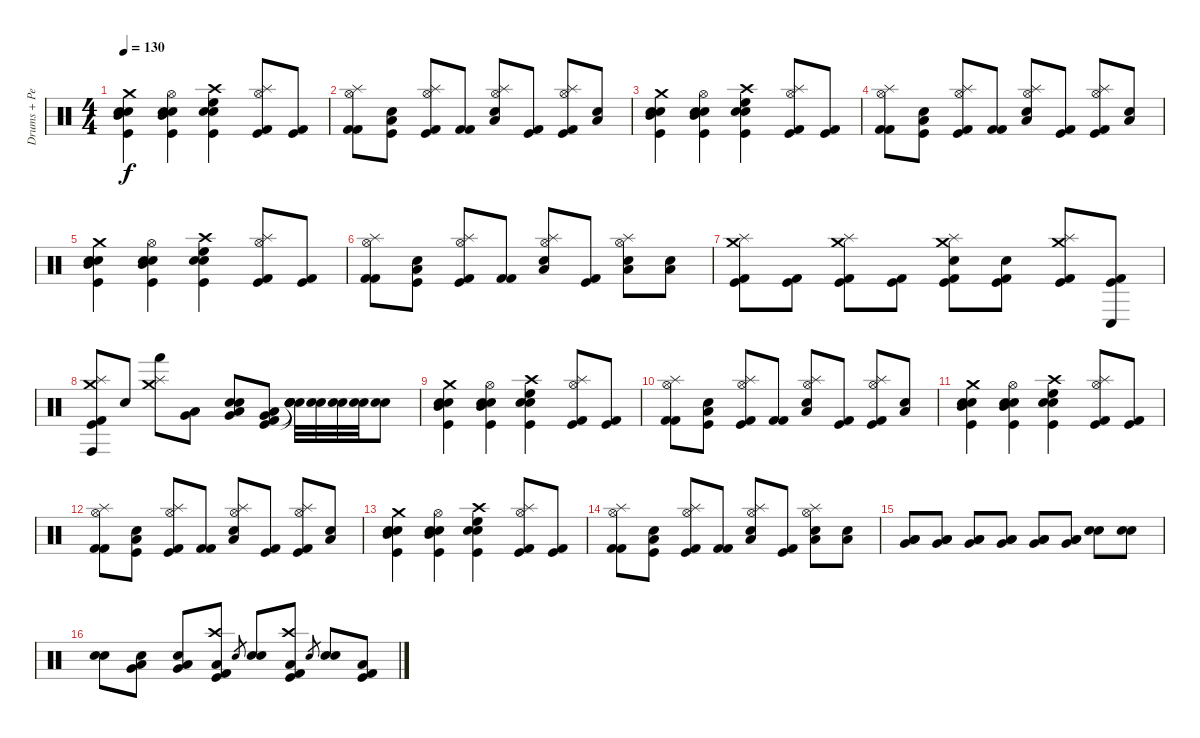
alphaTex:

\track ("Drums + Percussions (Dave Chavarri)" "Drums + Pe") {instrument percussion}
\staff {score}
\articulation defaults
\ts (4 4)
\tempo 130
\clef neutral
\ks c
("Crash medium (hit)" "Snare (hit) 2" "Electric Snare (hit)" "Mid Tom (hit)" "Kick (hit)").4{dy f} ("Hi-Hat (open)" "Snare (hit) 2" "Electric Snare (hit)" "Mid Tom (hit)" "Kick (hit)").4 ("Crash high (hit)" "Snare (hit) 2" "Electric Snare (hit)" "High Floor Tom (hit)" "Kick (hit)").4 ("Hi-Hat (open)" "Splash (hit)" "Kick (hit) 2" "Kick (hit)").8 ("Kick (hit) 2" "Kick (hit)").8 |
("Hi-Hat (open)" "Splash (hit)" "Kick (hit) 2" "Kick (hit) 2").8 ("Electric Snare (hit)" "Low Floor Tom (hit)" "Kick (hit)").8 ("Hi-Hat (open)" "Splash (hit)" "Kick (hit) 2" "Kick (hit)").8 ("Kick (hit) 2" "Kick (hit) 2").8 ("Hi-Hat (open)" "Splash (hit)" "Electric Snare (hit)" "Low Floor Tom (hit)").8 ("Kick (hit)" "Kick (hit) 2").8 ("Hi-Hat (open)" "Splash (hit)" "Kick (hit)" "Kick (hit) 2").8 ("Electric Snare (hit)" "Low Floor Tom (hit)").8 |
("Crash medium (hit)" "Snare (hit) 2" "Electric Snare (hit)" "Mid Tom (hit)" "Kick (hit)").4 ("Hi-Hat (open)" "Snare (hit) 2" "Electric Snare (hit)" "Mid Tom (hit)" "Kick (hit)").4 ("Crash high (hit)" "Snare (hit) 2" "Electric Snare (hit)" "High Floor Tom (hit)" "Kick (hit)").4 ("Hi-Hat (open)" "Splash (hit)" "Kick (hit) 2" "Kick (hit)").8 ("Kick (hit) 2" "Kick (hit)").8 |
("Hi-Hat (open)" "Splash (hit)" "Kick (hit) 2" "Kick (hit) 2").8 ("Electric Snare (hit)" "Low Floor Tom (hit)" "Kick (hit)").8 ("Hi-Hat (open)" "Splash (hit)" "Kick (hit) 2" "Kick (hit)").8 ("Kick (hit) 2" "Kick (hit) 2").8 ("Hi-Hat (open)" "Splash (hit)" "Electric Snare (hit)" "Low Floor Tom (hit)").8 ("Kick (hit)" "Kick (hit) 2").8 ("Hi-Hat (open)" "Splash (hit)" "Kick (hit)" "Kick (hit) 2").8 ("Electric Snare (hit)" "Low Floor Tom (hit)").8 |
("Crash medium (hit)" "Snare (hit) 2" "Electric Snare (hit)" "Mid Tom (hit)" "Kick (hit)").4 ("Hi-Hat (open)" "Snare (hit) 2" "Electric Snare (hit)" "Mid Tom (hit)" "Kick (hit)").4 ("Crash high (hit)" "Snare (hit) 2" "Electric Snare (hit)" "High Floor Tom (hit)" "Kick (hit)").4 ("Hi-Hat (open)" "Splash (hit)" "Kick (hit) 2" "Kick (hit)").8 ("Kick (hit) 2" "Kick (hit)").8 |
("Hi-Hat (open)" "Splash (hit)" "Kick (hit) 2" "Kick (hit) 2").8 ("Electric Snare (hit)" "Low Floor Tom (hit)" "Kick (hit)").8 ("Hi-Hat (open)" "Splash (hit)" "Kick (hit) 2" "Kick (hit)").8 ("Kick (hit) 2" "Kick (hit) 2").8 ("Hi-Hat (open)" "Splash (hit)" "Electric Snare (hit)" "Low Floor Tom (hit)").8 ("Kick (hit)" "Kick (hit) 2").8 ("Hi-Hat (open)" "Splash (hit)" "Electric Snare (hit)" "Low Floor Tom (hit)").8 ("Electric Snare (hit)" "Low Floor Tom (hit)").8 |
("Crash medium (hit)" "Splash (hit)" "Kick (hit)" "Kick (hit) 2").8 ("Kick (hit)" "Kick (hit) 2").8 ("Crash medium (hit)" "Splash (hit)" "Kick (hit)" "Kick (hit) 2").8 ("Kick (hit)" "Kick (hit) 2").8 ("Crash medium (hit)" "Splash (hit)" "Electric Snare (hit)" "Kick (hit)" "Kick (hit) 2").8 ("Electric Snare (hit)" "Kick (hit)" "Kick (hit) 2").8 ("Crash medium (hit)" "Splash (hit)" "Kick (hit)" "Kick (hit) 2").8 ("Conga low (hit)" "Kick (hit)" "Kick (hit) 2").8 |
("Crash medium (hit)" "Splash (hit)" "Conga high (hit)" "Kick (hit)" "Kick (hit) 2").8 "Electric Snare (hit)".8 ("Crash medium (hit)" "Splash (hit)" "Hand (hit)").8 ("Low Floor Tom (hit)" "Very Low Tom (hit)").8 ("Snare (hit) 2" "Electric Snare (hit)" "Low Floor Tom (hit)" "Very Low Tom (hit)").8 ("Kick (hit) 2" "Kick (hit)" "Low Floor Tom (hit)" "Very Low Tom (hit)").8 ("Snare (hit)"{t} "Snare (hit)"{t} "Electric Snare (hit)" "Electric Snare (hit)").32 ("Electric Snare (hit)" "Electric Snare (hit)").32 ("Electric Snare (hit)" "Electric Snare (hit)").32 ("Electric Snare (hit)" "Electric Snare (hit)").32 ("Electric Snare (hit)" "Snare (hit) 2").8 |
("Crash medium (hit)" "Snare (hit) 2" "Electric Snare (hit)" "Mid Tom (hit)" "Kick (hit)").4 ("Hi-Hat (open)" "Snare (hit) 2" "Electric Snare (hit)" "Mid Tom (hit)" "Kick (hit)").4 ("Crash high (hit)" "Snare (hit) 2" "Electric Snare (hit)" "High Floor Tom (hit)" "Kick (hit)").4 ("Hi-Hat (open)" "Splash (hit)" "Kick (hit) 2" "Kick (hit)").8 ("Kick (hit) 2" "Kick (hit)").8 |
("Hi-Hat (open)" "Splash (hit)" "Kick (hit) 2" "Kick (hit) 2").8 ("Electric Snare (hit)" "Low Floor Tom (hit)" "Kick (hit)").8 ("Hi-Hat (open)" "Splash (hit)" "Kick (hit) 2" "Kick (hit)").8 ("Kick (hit) 2" "Kick (hit) 2").8 ("Hi-Hat (open)" "Splash (hit)" "Electric Snare (hit)" "Low Floor Tom (hit)").8 ("Kick (hit)" "Kick (hit) 2").8 ("Hi-Hat (open)" "Splash (hit)" "Kick (hit)" "Kick (hit) 2").8 ("Electric Snare (hit)" "Low Floor Tom (hit)").8 |
("Crash medium (hit)" "Snare (hit) 2" "Electric Snare (hit)" "Mid Tom (hit)" "Kick (hit)").4 ("Hi-Hat (open)" "Snare (hit) 2" "Electric Snare (hit)" "Mid Tom (hit)" "Kick (hit)").4 ("Crash high (hit)" "Snare (hit) 2" "Electric Snare (hit)" "High Floor Tom (hit)" "Kick (hit)").4 ("Hi-Hat (open)" "Splash (hit)" "Kick (hit) 2" "Kick (hit)").8 ("Kick (hit) 2" "Kick (hit)").8 |
("Hi-Hat (open)" "Splash (hit)" "Kick (hit) 2" "Kick (hit) 2").8 ("Electric Snare (hit)" "Low Floor Tom (hit)" "Kick (hit)").8 ("Hi-Hat (open)" "Splash (hit)" "Kick (hit) 2" "Kick (hit)").8 ("Kick (hit) 2" "Kick (hit) 2").8 ("Hi-Hat (open)" "Splash (hit)" "Electric Snare (hit)" "Low Floor Tom (hit)").8 ("Kick (hit)" "Kick (hit) 2").8 ("Hi-Hat (open)" "Splash (hit)" "Kick (hit)" "Kick (hit) 2").8 ("Electric Snare (hit)" "Low Floor Tom (hit)").8 |
("Crash medium (hit)" "Snare (hit) 2" "Electric Snare (hit)" "Mid Tom (hit)" "Kick (hit)").4 ("Hi-Hat (open)" "Snare (hit) 2" "Electric Snare (hit)" "Mid Tom (hit)" "Kick (hit)").4 ("Crash high (hit)" "Snare (hit) 2" "Electric Snare (hit)" "High Floor Tom (hit)" "Kick (hit)").4 ("Hi-Hat (open)" "Splash (hit)" "Kick (hit) 2" "Kick (hit)").8 ("Kick (hit) 2" "Kick (hit)").8 |
("Hi-Hat (open)" "Splash (hit)" "Kick (hit) 2" "Kick (hit) 2").8 ("Electric Snare (hit)" "Low Floor Tom (hit)" "Kick (hit)").8 ("Hi-Hat (open)" "Splash (hit)" "Kick (hit) 2" "Kick (hit)").8 ("Kick (hit) 2" "Kick (hit) 2").8 ("Hi-Hat (open)" "Splash (hit)" "Electric Snare (hit)" "Low Floor Tom (hit)").8 ("Kick (hit)" "Kick (hit) 2").8 ("Hi-Hat (open)" "Splash (hit)" "Electric Snare (hit)" "Low Floor Tom (hit)").8 ("Electric Snare (hit)" "Low Floor Tom (hit)").8 |
("Low Tom (hit)" "Very Low Tom (hit)" "Low Floor Tom (hit)").8 ("Low Tom (hit)" "Very Low Tom (hit)" "Low Floor Tom (hit)").8 ("Low Tom (hit)" "Very Low Tom (hit)" "Low Floor Tom (hit)").8 ("Low Tom (hit)" "Very Low Tom (hit)" "Low Floor Tom (hit)").8 ("Low Tom (hit)" "Very Low Tom (hit)" "Low Floor Tom (hit)").8 ("Low Tom (hit)" "Very Low Tom (hit)" "Low Floor Tom (hit)").8 ("Snare (hit) 2" "Electric Snare (hit)").8 ("Snare (hit) 2" "Electric Snare (hit)").8 |
("Snare (hit) 2" "Electric Snare (hit)").8 ("Low Tom (hit)" "Very Low Tom (hit)" "Electric Snare (hit)").8 ("Low Tom (hit)" "Very Low Tom (hit)" "Electric Snare (hit)").8 ("Crash high (hit)" "Low Floor Tom (hit)" "Kick (hit) 2" "Kick (hit)").8 "Electric Snare (hit)".8{gr} ("Electric Snare (hit)" "Snare (hit) 2").8 ("Crash high (hit)" "Low Floor Tom (hit)" "Kick (hit) 2" "Kick (hit)").8 "Electric Snare (hit)".8{gr} ("Electric Snare (hit)" "Snare (hit) 2").8 ("Low Floor Tom (hit)" "Kick (hit) 2" "Kick (hit)").8
